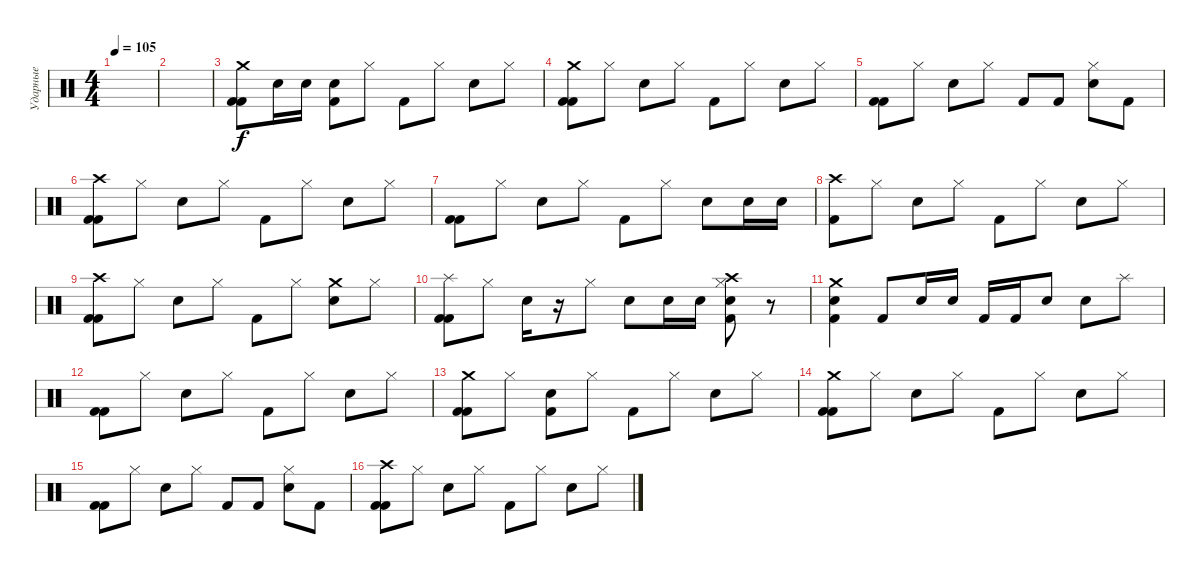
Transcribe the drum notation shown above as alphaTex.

\track ("Ударные" "Ударные") {instrument percussion}
\staff {score}
\articulation defaults
\ts (4 4)
\tempo 105
\clef neutral
\ks c
|
|
("Crash medium (hit)" "Kick (hit) 2" "Kick (hit) 2").8{volume 16} "Electric Snare (hit)".16 "Electric Snare (hit)".16 ("Kick (hit) 2" "Snare (hit) 2").8 "Hi-Hat (closed)".8 "Kick (hit) 2".8 "Hi-Hat (closed)".8 "Snare (hit) 2".8 "Hi-Hat (closed)".8 |
("Crash medium (hit)" "Kick (hit) 2" "Kick (hit) 2").8 "Hi-Hat (closed)".8 "Snare (hit) 2".8 "Hi-Hat (closed)".8 "Kick (hit) 2".8 "Hi-Hat (closed)".8 "Snare (hit) 2".8 "Hi-Hat (closed)".8 |
("Kick (hit) 2" "Kick (hit) 2").8 "Hi-Hat (closed)".8 "Snare (hit) 2".8 "Hi-Hat (closed)".8 "Kick (hit) 2".8 "Kick (hit) 2".8 ("Hi-Hat (closed)" "Snare (hit) 2").8 "Kick (hit) 2".8 |
("Crash high (hit)" "Kick (hit) 2" "Kick (hit) 2").8 "Hi-Hat (closed)".8 "Snare (hit) 2".8 "Hi-Hat (closed)".8 "Kick (hit) 2".8 "Hi-Hat (closed)".8 "Snare (hit) 2".8 "Hi-Hat (closed)".8 |
("Kick (hit) 2" "Kick (hit) 2").8 "Hi-Hat (closed)".8 "Snare (hit) 2".8 "Hi-Hat (closed)".8 "Kick (hit) 2".8 "Hi-Hat (closed)".8 "Snare (hit) 2".8 "Snare (hit) 2".16 "Snare (hit) 2".16 |
("Kick (hit) 2" "Crash high (hit)").8 "Hi-Hat (closed)".8 "Snare (hit) 2".8 "Hi-Hat (closed)".8 "Kick (hit) 2".8 "Hi-Hat (closed)".8 "Snare (hit) 2".8 "Hi-Hat (closed)".8 |
("Crash high (hit)" "Kick (hit) 2" "Kick (hit) 2").8 "Hi-Hat (closed)".8 "Snare (hit) 2".8 "Hi-Hat (closed)".8 "Kick (hit) 2".8 "Hi-Hat (closed)".8 ("Crash medium (hit)" "Snare (hit) 2").8 "Hi-Hat (closed)".8 |
("Splash (hit)" "Kick (hit) 2" "Kick (hit) 2").8 "Hi-Hat (closed)".8 "Snare (hit) 2".16 r.16 "Hi-Hat (closed)".8 "Snare (hit) 2".8 "Snare (hit) 2".16 "Snare (hit) 2".16 ("Crash high (hit)" "Snare (hit) 2" "Hi-Hat (closed)" "Kick (hit) 2").8 r.8 |
("Crash medium (hit)" "Snare (hit) 2" "Kick (hit) 2").4 "Kick (hit) 2".8 "Snare (hit) 2".16 "Snare (hit) 2".16 "Kick (hit) 2".16 "Kick (hit) 2".16 "Snare (hit) 2".8 "Snare (hit) 2".8 "Splash (hit)".8 |
("Kick (hit) 2" "Kick (hit) 2").8 "Hi-Hat (closed)".8 "Snare (hit) 2".8 "Hi-Hat (closed)".8 "Kick (hit) 2".8 "Hi-Hat (closed)".8 "Snare (hit) 2".8 "Hi-Hat (closed)".8 |
("Crash medium (hit)" "Kick (hit) 2" "Kick (hit) 2").8 "Hi-Hat (closed)".8 ("Kick (hit) 2" "Snare (hit) 2").8 "Hi-Hat (closed)".8 "Kick (hit) 2".8 "Hi-Hat (closed)".8 "Snare (hit) 2".8 "Hi-Hat (closed)".8 |
("Crash medium (hit)" "Kick (hit) 2" "Kick (hit) 2").8 "Hi-Hat (closed)".8 "Snare (hit) 2".8 "Hi-Hat (closed)".8 "Kick (hit) 2".8 "Hi-Hat (closed)".8 "Snare (hit) 2".8 "Hi-Hat (closed)".8 |
("Kick (hit) 2" "Kick (hit) 2").8 "Hi-Hat (closed)".8 "Snare (hit) 2".8 "Hi-Hat (closed)".8 "Kick (hit) 2".8 "Kick (hit) 2".8 ("Hi-Hat (closed)" "Snare (hit) 2").8 "Kick (hit) 2".8 |
("Crash high (hit)" "Kick (hit) 2" "Kick (hit) 2").8 "Hi-Hat (closed)".8 "Snare (hit) 2".8 "Hi-Hat (closed)".8 "Kick (hit) 2".8 "Hi-Hat (closed)".8 "Snare (hit) 2".8 "Hi-Hat (closed)".8
